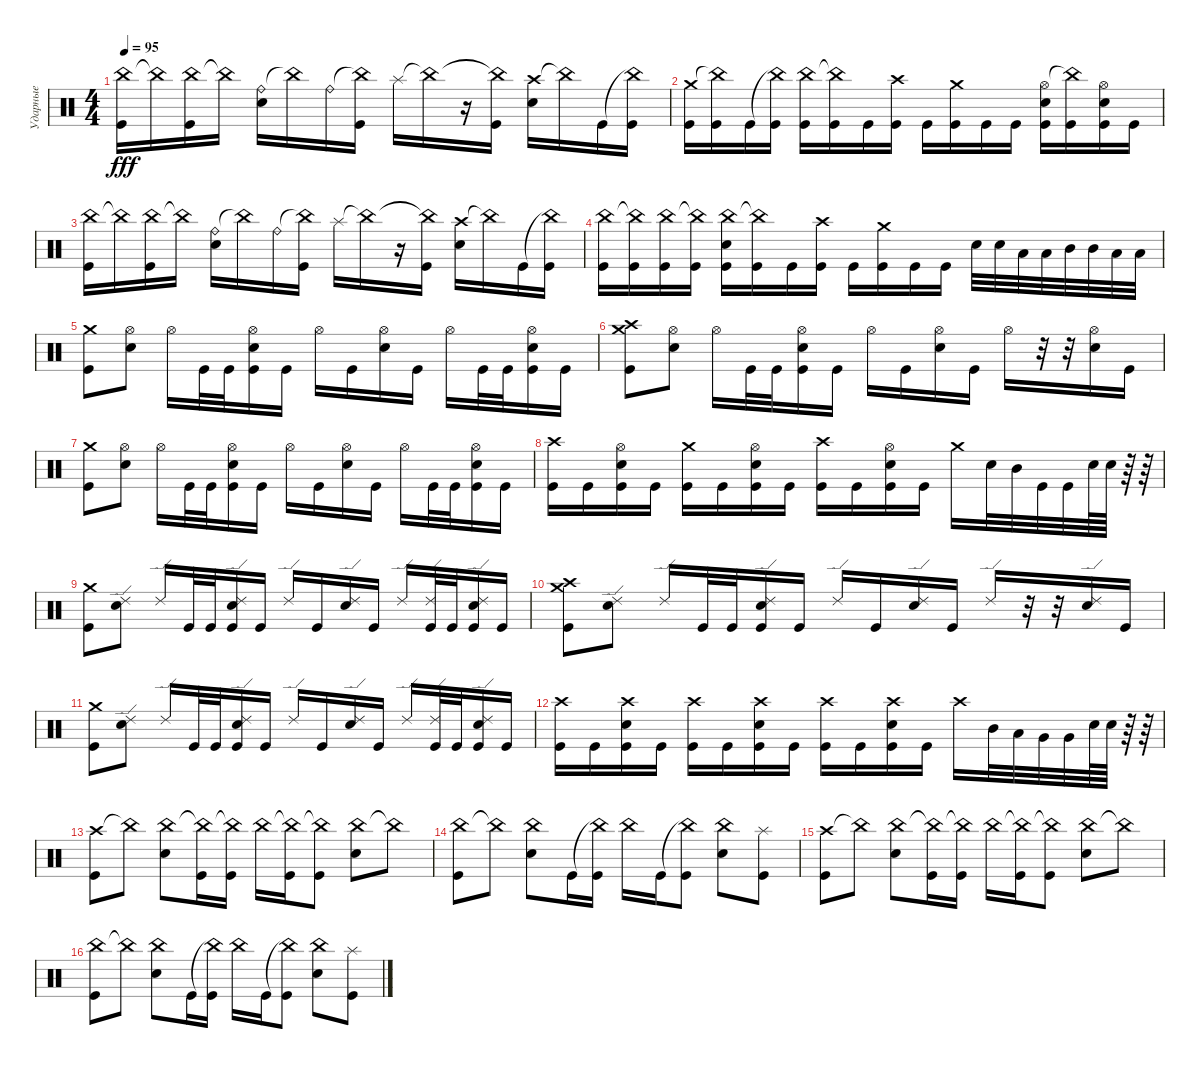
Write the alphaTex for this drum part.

\track ("Ударные" "Ударные") {instrument percussion}
\staff {score}
\articulation defaults
\ts (4 4)
\tempo 95
\clef neutral
\ks c
("China (hit)" "Kick (hit)").16{dy fff} "China (hit)"{t}.16 ("China (hit)" "Kick (hit)").16 "China (hit)"{t}.16 ("Ride (bell)" "Snare (hit) 2").16 "China (hit)"{t}.16 "Ride (bell)".16 ("China (hit)"{t} "Kick (hit)").16 "Splash (hit)".16 "China (hit)"{t}.16 r.16 ("China (hit)"{t} "Kick (hit)").16 ("Crash high (hit)" "Snare (hit) 2").16 "China (hit)"{t}.16 "Kick (hit)".16 ("China (hit)"{t} "Kick (hit)").16 |
("Crash medium (hit)" "Kick (hit)").16 ("China (hit)"{t} "Kick (hit)").16 "Kick (hit)".16 ("China (hit)"{t} "Kick (hit)").16 ("China (hit)" "Kick (hit)").16 ("China (hit)"{t} "Kick (hit)").16 "Kick (hit)".16 ("Crash high (hit)" "Kick (hit)").16 "Kick (hit)".16 ("Crash medium (hit)" "Kick (hit)").16 "Kick (hit)".16 "Kick (hit)".16 ("Hi-Hat (open)" "Snare (hit) 2" "Kick (hit)").16 ("China (hit)"{t} "Kick (hit)").16 ("Hi-Hat (open)" "Snare (hit) 2" "Kick (hit)").16 "Kick (hit)".16 |
("China (hit)" "Kick (hit)").16 "China (hit)"{t}.16 ("China (hit)" "Kick (hit)").16 "China (hit)"{t}.16 ("Ride (bell)" "Snare (hit) 2").16 "China (hit)"{t}.16 "Ride (bell)".16 ("China (hit)"{t} "Kick (hit)").16 "Splash (hit)".16 "China (hit)"{t}.16 r.16 ("China (hit)"{t} "Kick (hit)").16 ("Crash high (hit)" "Snare (hit) 2").16 "China (hit)"{t}.16 "Kick (hit)".16 ("China (hit)"{t} "Kick (hit)").16 |
("China (hit)" "Kick (hit)").16 ("China (hit)"{t} "Kick (hit)").16 ("China (hit)" "Kick (hit)").16 ("China (hit)"{t} "Kick (hit)").16 ("China (hit)" "Snare (hit) 2" "Kick (hit)").16 ("China (hit)"{t} "Kick (hit)").16 "Kick (hit)".16 ("Crash high (hit)" "Kick (hit)").16 "Kick (hit)".16 ("Crash medium (hit)" "Kick (hit)").16 "Kick (hit)".16 "Kick (hit)".16 "Snare (hit) 2".32 "Snare (hit) 2".32 "Low Tom (hit)".32 "Low Tom (hit)".32 "Mid Tom (hit)".32 "Mid Tom (hit)".32 "Low Tom (hit)".32 "Low Tom (hit)".32 |
("Crash medium (hit)" "Kick (hit)").8 ("Hi-Hat (open)" "Snare (hit) 2").8 "Hi-Hat (open)".16 "Kick (hit)".32 "Kick (hit)".32 ("Hi-Hat (open)" "Snare (hit) 2" "Kick (hit)").16 "Kick (hit)".16 "Hi-Hat (open)".16 "Kick (hit)".16 ("Hi-Hat (open)" "Snare (hit) 2").16 "Kick (hit)".16 "Hi-Hat (open)".16 "Kick (hit)".32 "Kick (hit)".32 ("Hi-Hat (open)" "Snare (hit) 2" "Kick (hit)").16 "Kick (hit)".16 |
("Crash high (hit)" "Crash medium (hit)" "Kick (hit)").8 ("Hi-Hat (open)" "Snare (hit) 2").8 "Hi-Hat (open)".16 "Kick (hit)".32 "Kick (hit)".32 ("Hi-Hat (open)" "Snare (hit) 2" "Kick (hit)").16 "Kick (hit)".16 "Hi-Hat (open)".16 "Kick (hit)".16 ("Hi-Hat (open)" "Snare (hit) 2").16 "Kick (hit)".16 "Hi-Hat (open)".16 r.32 r.32 ("Hi-Hat (open)" "Snare (hit) 2").16 "Kick (hit)".16 |
("Crash medium (hit)" "Kick (hit)").8 ("Hi-Hat (open)" "Snare (hit) 2").8 "Hi-Hat (open)".16 "Kick (hit)".32 "Kick (hit)".32 ("Hi-Hat (open)" "Snare (hit) 2" "Kick (hit)").16 "Kick (hit)".16 "Hi-Hat (open)".16 "Kick (hit)".16 ("Hi-Hat (open)" "Snare (hit) 2").16 "Kick (hit)".16 "Hi-Hat (open)".16 "Kick (hit)".32 "Kick (hit)".32 ("Hi-Hat (open)" "Snare (hit) 2" "Kick (hit)").16 "Kick (hit)".16 |
("Crash high (hit)" "Kick (hit)").16 "Kick (hit)".16 ("Hi-Hat (open)" "Snare (hit) 2" "Kick (hit)").16 "Kick (hit)".16 ("Crash medium (hit)" "Kick (hit)").16 "Kick (hit)".16 ("Hi-Hat (open)" "Snare (hit) 2" "Kick (hit)").16 "Kick (hit)".16 ("Crash high (hit)" "Kick (hit)").16 "Kick (hit)".16 ("Hi-Hat (open)" "Snare (hit) 2" "Kick (hit)").16 "Kick (hit)".16 "Crash medium (hit)".16 "Snare (hit) 2".32 "Mid Tom (hit)".32 "Kick (hit)".32 "Kick (hit)".32 "Snare (hit) 2".64 "Snare (hit) 2".64 r.64 r.64 |
("Crash medium (hit)" "Kick (hit)").8 ("Ride (edge) 2" "Snare (hit) 2").8 "Ride (edge) 2".16 "Kick (hit)".32 "Kick (hit)".32 ("Ride (edge) 2" "Snare (hit) 2" "Kick (hit)").16 "Kick (hit)".16 "Ride (edge) 2".16 "Kick (hit)".16 ("Ride (edge) 2" "Snare (hit) 2").16 "Kick (hit)".16 "Ride (edge) 2".16 ("Ride (edge) 2" "Kick (hit)").32 "Kick (hit)".32 ("Ride (edge) 2" "Snare (hit) 2" "Kick (hit)").16 "Kick (hit)".16 |
("Crash high (hit)" "Crash medium (hit)" "Kick (hit)").8 ("Ride (edge) 2" "Snare (hit) 2").8 "Ride (edge) 2".16 "Kick (hit)".32 "Kick (hit)".32 ("Ride (edge) 2" "Snare (hit) 2" "Kick (hit)").16 "Kick (hit)".16 "Ride (edge) 2".16 "Kick (hit)".16 ("Ride (edge) 2" "Snare (hit) 2").16 "Kick (hit)".16 "Ride (edge) 2".16 r.32 r.32 ("Ride (edge) 2" "Snare (hit) 2").16 "Kick (hit)".16 |
("Crash medium (hit)" "Kick (hit)").8 ("Ride (edge) 2" "Snare (hit) 2").8 "Ride (edge) 2".16 "Kick (hit)".32 "Kick (hit)".32 ("Ride (edge) 2" "Snare (hit) 2" "Kick (hit)").16 "Kick (hit)".16 "Ride (edge) 2".16 "Kick (hit)".16 ("Ride (edge) 2" "Snare (hit) 2").16 "Kick (hit)".16 "Ride (edge) 2".16 ("Ride (edge) 2" "Kick (hit)").32 "Kick (hit)".32 ("Ride (edge) 2" "Snare (hit) 2" "Kick (hit)").16 "Kick (hit)".16 |
("Crash high (hit)" "Kick (hit)").16 "Kick (hit)".16 ("Crash high (hit)" "Snare (hit) 2" "Kick (hit)").16 "Kick (hit)".16 ("Crash high (hit)" "Kick (hit)").16 "Kick (hit)".16 ("Crash high (hit)" "Snare (hit) 2" "Kick (hit)").16 "Kick (hit)".16 ("Crash high (hit)" "Kick (hit)").16 "Kick (hit)".16 ("Crash high (hit)" "Snare (hit) 2" "Kick (hit)").16 "Kick (hit)".16 "Crash high (hit)".16 "Mid Tom (hit)".32 "Low Tom (hit)".32 "Very Low Tom (hit)".32 "Very Low Tom (hit)".32 "Snare (hit) 2".64 "Snare (hit) 2".64 r.64 r.64 |
("Crash high (hit)" "Kick (hit)").8 "China (hit)"{t}.8 ("China (hit)" "Snare (hit) 2").8 ("China (hit)"{t} "Kick (hit)").16 ("China (hit)"{t} "Kick (hit)").16 "China (hit)".16 ("China (hit)"{t} "Kick (hit)").16 ("China (hit)"{t} "Kick (hit)").8 ("China (hit)" "Snare (hit) 2").8 "China (hit)"{t}.8 |
("China (hit)" "Kick (hit)").8 "China (hit)"{t}.8 ("China (hit)" "Snare (hit) 2").8 "Kick (hit)".16 ("China (hit)"{t} "Kick (hit)").16 "China (hit)".16 "Kick (hit)".16 ("China (hit)"{t} "Kick (hit)").8 ("China (hit)" "Snare (hit) 2").8 ("Splash (hit)" "Kick (hit)").8 |
("Crash high (hit)" "Kick (hit)").8 "China (hit)"{t}.8 ("China (hit)" "Snare (hit) 2").8 ("China (hit)"{t} "Kick (hit)").16 ("China (hit)"{t} "Kick (hit)").16 "China (hit)".16 ("China (hit)"{t} "Kick (hit)").16 ("China (hit)"{t} "Kick (hit)").8 ("China (hit)" "Snare (hit) 2").8 "China (hit)"{t}.8 |
("China (hit)" "Kick (hit)").8 "China (hit)"{t}.8 ("China (hit)" "Snare (hit) 2").8 "Kick (hit)".16 ("China (hit)"{t} "Kick (hit)").16 "China (hit)".16 "Kick (hit)".16 ("China (hit)"{t} "Kick (hit)").8 ("China (hit)" "Snare (hit) 2").8 ("Splash (hit)" "Kick (hit)").8
